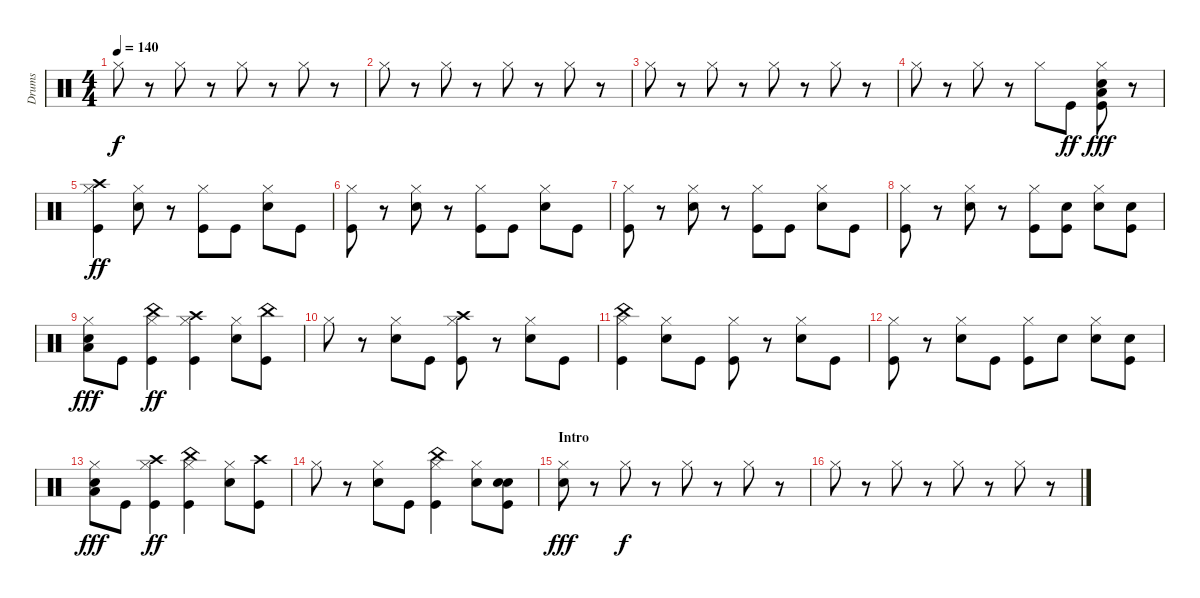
\track ("Drums" "Drums") {instrument percussion}
\staff {score}
\articulation defaults
\ts (4 4)
\tempo 140
\clef neutral
\ks c "Hi-Hat (closed)".8{dy f}
r.8 "Hi-Hat (closed)".8 r.8 "Hi-Hat (closed)".8 r.8 "Hi-Hat (closed)".8 r.8 |
"Hi-Hat (closed)".8 r.8 "Hi-Hat (closed)".8 r.8 "Hi-Hat (closed)".8 r.8 "Hi-Hat (closed)".8 r.8 |
"Hi-Hat (closed)".8 r.8 "Hi-Hat (closed)".8 r.8 "Hi-Hat (closed)".8 r.8 "Hi-Hat (closed)".8 r.8 |
"Hi-Hat (closed)".8 r.8 "Hi-Hat (closed)".8 r.8 "Hi-Hat (closed)".8 "Kick (hit)".8{dy ff} ("Kick (hit)" "Snare (hit) 2" "Low Floor Tom (hit)" "Hi-Hat (closed)").8{dy fff} r.8 |
("Crash high (hit)" "Hi-Hat (closed)" "Kick (hit)").4{dy ff} ("Hi-Hat (closed)" "Snare (hit) 2").8 r.8 ("Hi-Hat (closed)" "Kick (hit)").8 "Kick (hit)".8 ("Hi-Hat (closed)" "Snare (hit) 2").8 "Kick (hit)".8 |
("Hi-Hat (closed)" "Kick (hit)").8 r.8 ("Hi-Hat (closed)" "Snare (hit) 2").8 r.8 ("Hi-Hat (closed)" "Kick (hit)").8 "Kick (hit)".8 ("Hi-Hat (closed)" "Snare (hit) 2").8 "Kick (hit)".8 |
("Hi-Hat (closed)" "Kick (hit)").8 r.8 ("Hi-Hat (closed)" "Snare (hit) 2").8 r.8 ("Hi-Hat (closed)" "Kick (hit)").8 "Kick (hit)".8 ("Hi-Hat (closed)" "Snare (hit) 2").8 "Kick (hit)".8 |
("Hi-Hat (closed)" "Kick (hit)").8 r.8 ("Hi-Hat (closed)" "Snare (hit) 2").8 r.8 ("Hi-Hat (closed)" "Kick (hit)").8 ("Snare (hit) 2" "Kick (hit)").8 ("Snare (hit) 2" "Hi-Hat (closed)").8 ("Snare (hit) 2" "Kick (hit)").8 |
("Snare (hit) 2" "Hi-Hat (closed)" "Low Floor Tom (hit)").8{dy fff} "Kick (hit)".8 ("Kick (hit)" "China (hit)" "Hi-Hat (closed)").4{dy ff} ("Kick (hit)" "Crash high (hit)" "Hi-Hat (closed)").4 ("Hi-Hat (closed)" "Snare (hit) 2").8 ("China (hit)" "Kick (hit)").8 |
"Hi-Hat (closed)".8 r.8 ("Hi-Hat (closed)" "Snare (hit) 2").8 "Kick (hit)".8 ("Kick (hit)" "Crash high (hit)" "Hi-Hat (closed)").8 r.8 ("Hi-Hat (closed)" "Snare (hit) 2").8 "Kick (hit)".8 |
("Kick (hit)" "China (hit)" "Hi-Hat (closed)").4 ("Hi-Hat (closed)" "Snare (hit) 2").8 "Kick (hit)".8 ("Hi-Hat (closed)" "Kick (hit)").8 r.8 ("Hi-Hat (closed)" "Snare (hit) 2").8 "Kick (hit)".8 |
("Hi-Hat (closed)" "Kick (hit)").8 r.8 ("Hi-Hat (closed)" "Snare (hit) 2").8 "Kick (hit)".8 ("Kick (hit)" "Hi-Hat (closed)").8 "Snare (hit) 2".8 ("Hi-Hat (closed)" "Snare (hit) 2").8 ("Snare (hit) 2" "Kick (hit)").8 |
("Snare (hit) 2" "Hi-Hat (closed)" "Low Floor Tom (hit)").8{dy fff} "Kick (hit)".8 ("Kick (hit)" "Crash high (hit)" "Hi-Hat (closed)").4{dy ff} ("Kick (hit)" "China (hit)" "Hi-Hat (closed)").4 ("Hi-Hat (closed)" "Snare (hit) 2").8 ("Kick (hit)" "Crash high (hit)").8 |
"Hi-Hat (closed)".8 r.8 ("Hi-Hat (closed)" "Snare (hit) 2").8 "Kick (hit)".8 ("Kick (hit)" "China (hit)" "Hi-Hat (closed)").4 ("Hi-Hat (closed)" "Snare (hit) 2").8 ("Snare (hit) 2" "Snare (hit) 2" "Kick (hit)").8 |
\section ("" "Intro")
("Snare (hit) 2" "Hi-Hat (closed)").8{dy fff} r.8 "Hi-Hat (closed)".8{dy f} r.8 "Hi-Hat (closed)".8 r.8 "Hi-Hat (closed)".8 r.8 |
"Hi-Hat (closed)".8 r.8 "Hi-Hat (closed)".8 r.8 "Hi-Hat (closed)".8 r.8 "Hi-Hat (closed)".8 r.8
